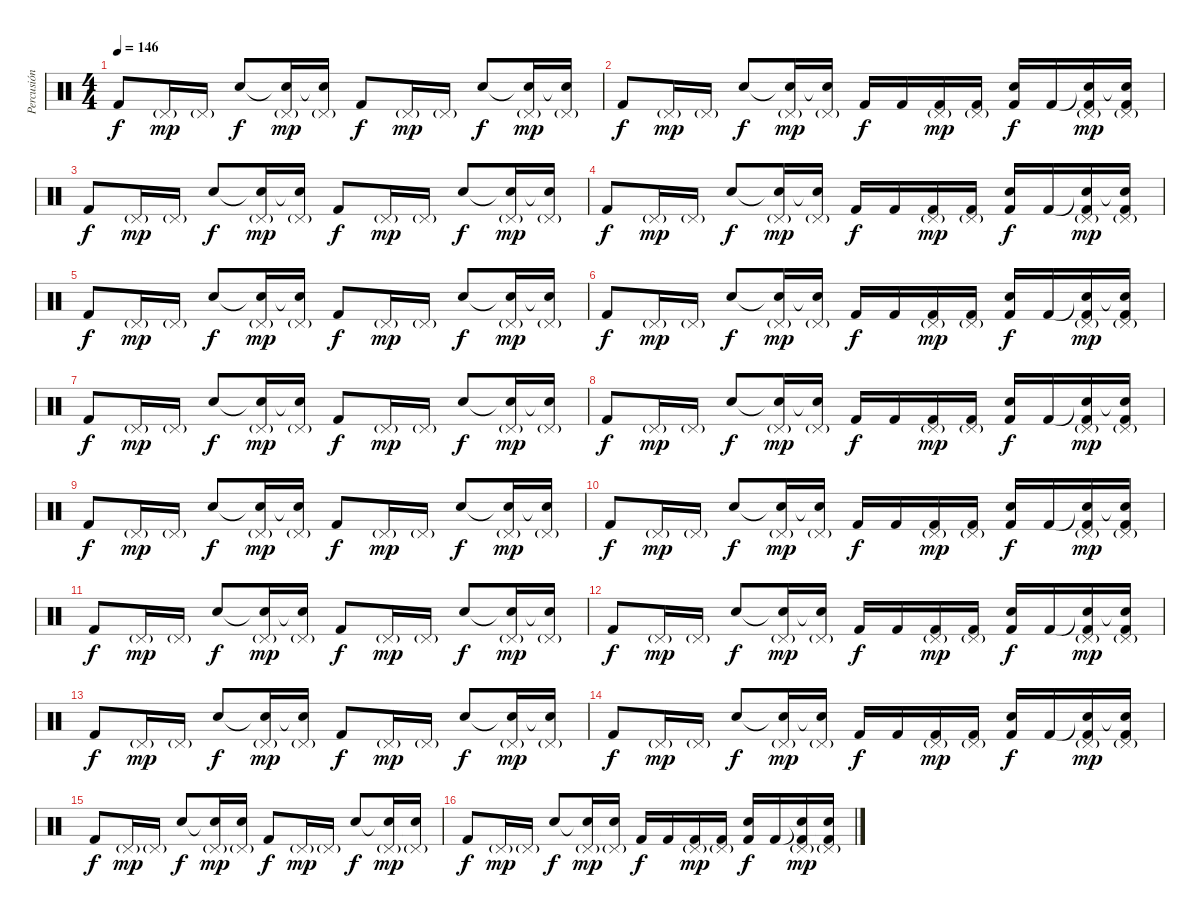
\track ("Percusión" "Percusión") {instrument percussion}
\staff {score}
\articulation defaults
\ts (4 4)
\tempo 146
\clef neutral
\ks c "Kick (hit) 2".8{dy f} "Pedal Hi-Hat (hit)"{g}.16{dy mp} "Pedal Hi-Hat (hit)"{g}.16 "Snare (hit) 2".8{dy f}
("Snare (hit)"{t} "Pedal Hi-Hat (hit)"{g}).16{dy mp} ("Snare (hit)"{t} "Pedal Hi-Hat (hit)"{g}).16 "Kick (hit) 2".8{dy f} "Pedal Hi-Hat (hit)"{g}.16{dy mp} "Pedal Hi-Hat (hit)"{g}.16 "Snare (hit) 2".8{dy f} ("Snare (hit)"{t} "Pedal Hi-Hat (hit)"{g}).16{dy mp} ("Snare (hit)"{t} "Pedal Hi-Hat (hit)"{g}).16 |
"Kick (hit) 2".8{dy f} "Pedal Hi-Hat (hit)"{g}.16{dy mp} "Pedal Hi-Hat (hit)"{g}.16 "Snare (hit) 2".8{dy f} ("Snare (hit)"{t} "Pedal Hi-Hat (hit)"{g}).16{dy mp} ("Snare (hit)"{t} "Pedal Hi-Hat (hit)"{g}).16 "Kick (hit) 2".16{dy f} "Kick (hit) 2".16 ("Pedal Hi-Hat (hit)"{g} "Kick (hit) 2").16{dy mp} ("Pedal Hi-Hat (hit)"{g} "Kick (hit) 2").16 ("Snare (hit) 2" "Kick (hit) 2").16{dy f} "Kick (hit) 2".16 ("Snare (hit)"{t} "Pedal Hi-Hat (hit)"{g} "Kick (hit) 2").16{dy mp} ("Snare (hit)"{t} "Pedal Hi-Hat (hit)"{g} "Kick (hit) 2").16 |
"Kick (hit) 2".8{dy f} "Pedal Hi-Hat (hit)"{g}.16{dy mp} "Pedal Hi-Hat (hit)"{g}.16 "Snare (hit) 2".8{dy f} ("Snare (hit)"{t} "Pedal Hi-Hat (hit)"{g}).16{dy mp} ("Snare (hit)"{t} "Pedal Hi-Hat (hit)"{g}).16 "Kick (hit) 2".8{dy f} "Pedal Hi-Hat (hit)"{g}.16{dy mp} "Pedal Hi-Hat (hit)"{g}.16 "Snare (hit) 2".8{dy f} ("Snare (hit)"{t} "Pedal Hi-Hat (hit)"{g}).16{dy mp} ("Snare (hit)"{t} "Pedal Hi-Hat (hit)"{g}).16 |
"Kick (hit) 2".8{dy f} "Pedal Hi-Hat (hit)"{g}.16{dy mp} "Pedal Hi-Hat (hit)"{g}.16 "Snare (hit) 2".8{dy f} ("Snare (hit)"{t} "Pedal Hi-Hat (hit)"{g}).16{dy mp} ("Snare (hit)"{t} "Pedal Hi-Hat (hit)"{g}).16 "Kick (hit) 2".16{dy f} "Kick (hit) 2".16 ("Pedal Hi-Hat (hit)"{g} "Kick (hit) 2").16{dy mp} ("Pedal Hi-Hat (hit)"{g} "Kick (hit) 2").16 ("Snare (hit) 2" "Kick (hit) 2").16{dy f} "Kick (hit) 2".16 ("Snare (hit)"{t} "Pedal Hi-Hat (hit)"{g} "Kick (hit) 2").16{dy mp} ("Snare (hit)"{t} "Pedal Hi-Hat (hit)"{g} "Kick (hit) 2").16 |
"Kick (hit) 2".8{dy f} "Pedal Hi-Hat (hit)"{g}.16{dy mp} "Pedal Hi-Hat (hit)"{g}.16 "Snare (hit) 2".8{dy f} ("Snare (hit)"{t} "Pedal Hi-Hat (hit)"{g}).16{dy mp} ("Snare (hit)"{t} "Pedal Hi-Hat (hit)"{g}).16 "Kick (hit) 2".8{dy f} "Pedal Hi-Hat (hit)"{g}.16{dy mp} "Pedal Hi-Hat (hit)"{g}.16 "Snare (hit) 2".8{dy f} ("Snare (hit)"{t} "Pedal Hi-Hat (hit)"{g}).16{dy mp} ("Snare (hit)"{t} "Pedal Hi-Hat (hit)"{g}).16 |
"Kick (hit) 2".8{dy f} "Pedal Hi-Hat (hit)"{g}.16{dy mp} "Pedal Hi-Hat (hit)"{g}.16 "Snare (hit) 2".8{dy f} ("Snare (hit)"{t} "Pedal Hi-Hat (hit)"{g}).16{dy mp} ("Snare (hit)"{t} "Pedal Hi-Hat (hit)"{g}).16 "Kick (hit) 2".16{dy f} "Kick (hit) 2".16 ("Pedal Hi-Hat (hit)"{g} "Kick (hit) 2").16{dy mp} ("Pedal Hi-Hat (hit)"{g} "Kick (hit) 2").16 ("Snare (hit) 2" "Kick (hit) 2").16{dy f} "Kick (hit) 2".16 ("Snare (hit)"{t} "Pedal Hi-Hat (hit)"{g} "Kick (hit) 2").16{dy mp} ("Snare (hit)"{t} "Pedal Hi-Hat (hit)"{g} "Kick (hit) 2").16 |
"Kick (hit) 2".8{dy f} "Pedal Hi-Hat (hit)"{g}.16{dy mp} "Pedal Hi-Hat (hit)"{g}.16 "Snare (hit) 2".8{dy f} ("Snare (hit)"{t} "Pedal Hi-Hat (hit)"{g}).16{dy mp} ("Snare (hit)"{t} "Pedal Hi-Hat (hit)"{g}).16 "Kick (hit) 2".8{dy f} "Pedal Hi-Hat (hit)"{g}.16{dy mp} "Pedal Hi-Hat (hit)"{g}.16 "Snare (hit) 2".8{dy f} ("Snare (hit)"{t} "Pedal Hi-Hat (hit)"{g}).16{dy mp} ("Snare (hit)"{t} "Pedal Hi-Hat (hit)"{g}).16 |
"Kick (hit) 2".8{dy f} "Pedal Hi-Hat (hit)"{g}.16{dy mp} "Pedal Hi-Hat (hit)"{g}.16 "Snare (hit) 2".8{dy f} ("Snare (hit)"{t} "Pedal Hi-Hat (hit)"{g}).16{dy mp} ("Snare (hit)"{t} "Pedal Hi-Hat (hit)"{g}).16 "Kick (hit) 2".16{dy f} "Kick (hit) 2".16 ("Pedal Hi-Hat (hit)"{g} "Kick (hit) 2").16{dy mp} ("Pedal Hi-Hat (hit)"{g} "Kick (hit) 2").16 ("Snare (hit) 2" "Kick (hit) 2").16{dy f} "Kick (hit) 2".16 ("Snare (hit)"{t} "Pedal Hi-Hat (hit)"{g} "Kick (hit) 2").16{dy mp} ("Snare (hit)"{t} "Pedal Hi-Hat (hit)"{g} "Kick (hit) 2").16 |
"Kick (hit) 2".8{dy f} "Pedal Hi-Hat (hit)"{g}.16{dy mp} "Pedal Hi-Hat (hit)"{g}.16 "Snare (hit) 2".8{dy f} ("Snare (hit)"{t} "Pedal Hi-Hat (hit)"{g}).16{dy mp} ("Snare (hit)"{t} "Pedal Hi-Hat (hit)"{g}).16 "Kick (hit) 2".8{dy f} "Pedal Hi-Hat (hit)"{g}.16{dy mp} "Pedal Hi-Hat (hit)"{g}.16 "Snare (hit) 2".8{dy f} ("Snare (hit)"{t} "Pedal Hi-Hat (hit)"{g}).16{dy mp} ("Snare (hit)"{t} "Pedal Hi-Hat (hit)"{g}).16 |
"Kick (hit) 2".8{dy f} "Pedal Hi-Hat (hit)"{g}.16{dy mp} "Pedal Hi-Hat (hit)"{g}.16 "Snare (hit) 2".8{dy f} ("Snare (hit)"{t} "Pedal Hi-Hat (hit)"{g}).16{dy mp} ("Snare (hit)"{t} "Pedal Hi-Hat (hit)"{g}).16 "Kick (hit) 2".16{dy f} "Kick (hit) 2".16 ("Pedal Hi-Hat (hit)"{g} "Kick (hit) 2").16{dy mp} ("Pedal Hi-Hat (hit)"{g} "Kick (hit) 2").16 ("Snare (hit) 2" "Kick (hit) 2").16{dy f} "Kick (hit) 2".16 ("Snare (hit)"{t} "Pedal Hi-Hat (hit)"{g} "Kick (hit) 2").16{dy mp} ("Snare (hit)"{t} "Pedal Hi-Hat (hit)"{g} "Kick (hit) 2").16 |
"Kick (hit) 2".8{dy f} "Pedal Hi-Hat (hit)"{g}.16{dy mp} "Pedal Hi-Hat (hit)"{g}.16 "Snare (hit) 2".8{dy f} ("Snare (hit)"{t} "Pedal Hi-Hat (hit)"{g}).16{dy mp} ("Snare (hit)"{t} "Pedal Hi-Hat (hit)"{g}).16 "Kick (hit) 2".8{dy f} "Pedal Hi-Hat (hit)"{g}.16{dy mp} "Pedal Hi-Hat (hit)"{g}.16 "Snare (hit) 2".8{dy f} ("Snare (hit)"{t} "Pedal Hi-Hat (hit)"{g}).16{dy mp} ("Snare (hit)"{t} "Pedal Hi-Hat (hit)"{g}).16 |
"Kick (hit) 2".8{dy f} "Pedal Hi-Hat (hit)"{g}.16{dy mp} "Pedal Hi-Hat (hit)"{g}.16 "Snare (hit) 2".8{dy f} ("Snare (hit)"{t} "Pedal Hi-Hat (hit)"{g}).16{dy mp} ("Snare (hit)"{t} "Pedal Hi-Hat (hit)"{g}).16 "Kick (hit) 2".16{dy f} "Kick (hit) 2".16 ("Pedal Hi-Hat (hit)"{g} "Kick (hit) 2").16{dy mp} ("Pedal Hi-Hat (hit)"{g} "Kick (hit) 2").16 ("Snare (hit) 2" "Kick (hit) 2").16{dy f} "Kick (hit) 2".16 ("Snare (hit)"{t} "Pedal Hi-Hat (hit)"{g} "Kick (hit) 2").16{dy mp} ("Snare (hit)"{t} "Pedal Hi-Hat (hit)"{g} "Kick (hit) 2").16 |
"Kick (hit) 2".8{dy f} "Pedal Hi-Hat (hit)"{g}.16{dy mp} "Pedal Hi-Hat (hit)"{g}.16 "Snare (hit) 2".8{dy f} ("Snare (hit)"{t} "Pedal Hi-Hat (hit)"{g}).16{dy mp} ("Snare (hit)"{t} "Pedal Hi-Hat (hit)"{g}).16 "Kick (hit) 2".8{dy f} "Pedal Hi-Hat (hit)"{g}.16{dy mp} "Pedal Hi-Hat (hit)"{g}.16 "Snare (hit) 2".8{dy f} ("Snare (hit)"{t} "Pedal Hi-Hat (hit)"{g}).16{dy mp} ("Snare (hit)"{t} "Pedal Hi-Hat (hit)"{g}).16 |
"Kick (hit) 2".8{dy f} "Pedal Hi-Hat (hit)"{g}.16{dy mp} "Pedal Hi-Hat (hit)"{g}.16 "Snare (hit) 2".8{dy f} ("Snare (hit)"{t} "Pedal Hi-Hat (hit)"{g}).16{dy mp} ("Snare (hit)"{t} "Pedal Hi-Hat (hit)"{g}).16 "Kick (hit) 2".16{dy f} "Kick (hit) 2".16 ("Pedal Hi-Hat (hit)"{g} "Kick (hit) 2").16{dy mp} ("Pedal Hi-Hat (hit)"{g} "Kick (hit) 2").16 ("Snare (hit) 2" "Kick (hit) 2").16{dy f} "Kick (hit) 2".16 ("Snare (hit)"{t} "Pedal Hi-Hat (hit)"{g} "Kick (hit) 2").16{dy mp} ("Snare (hit)"{t} "Pedal Hi-Hat (hit)"{g} "Kick (hit) 2").16 |
"Kick (hit) 2".8{dy f} "Pedal Hi-Hat (hit)"{g}.16{dy mp} "Pedal Hi-Hat (hit)"{g}.16 "Snare (hit) 2".8{dy f} ("Snare (hit)"{t} "Pedal Hi-Hat (hit)"{g}).16{dy mp} ("Snare (hit)"{t} "Pedal Hi-Hat (hit)"{g}).16 "Kick (hit) 2".8{dy f} "Pedal Hi-Hat (hit)"{g}.16{dy mp} "Pedal Hi-Hat (hit)"{g}.16 "Snare (hit) 2".8{dy f} ("Snare (hit)"{t} "Pedal Hi-Hat (hit)"{g}).16{dy mp} ("Snare (hit)"{t} "Pedal Hi-Hat (hit)"{g}).16 |
"Kick (hit) 2".8{dy f} "Pedal Hi-Hat (hit)"{g}.16{dy mp} "Pedal Hi-Hat (hit)"{g}.16 "Snare (hit) 2".8{dy f} ("Snare (hit)"{t} "Pedal Hi-Hat (hit)"{g}).16{dy mp} ("Snare (hit)"{t} "Pedal Hi-Hat (hit)"{g}).16 "Kick (hit) 2".16{dy f} "Kick (hit) 2".16 ("Pedal Hi-Hat (hit)"{g} "Kick (hit) 2").16{dy mp} ("Pedal Hi-Hat (hit)"{g} "Kick (hit) 2").16 ("Snare (hit) 2" "Kick (hit) 2").16{dy f} "Kick (hit) 2".16 ("Snare (hit)"{t} "Pedal Hi-Hat (hit)"{g} "Kick (hit) 2").16{dy mp} ("Snare (hit)"{t} "Pedal Hi-Hat (hit)"{g} "Kick (hit) 2").16
